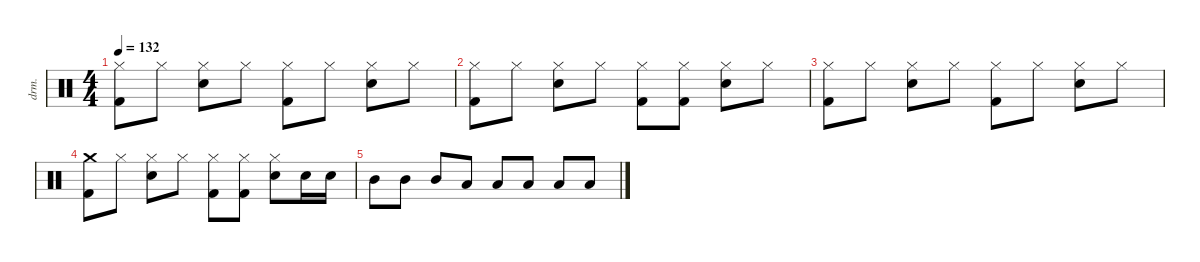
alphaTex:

\defaultSystemsLayout 4
\hideDynamics
\bracketExtendMode nobrackets
\track ("敲击乐器" "drm.") {instrument percussion}
\staff {score}
\articulation defaults
\ts (4 4)
\tempo 132
\clef neutral
\ks c
("Hi-Hat (closed)" "Kick (hit) 2").8{dy f} "Hi-Hat (closed)".8 ("Hi-Hat (closed)" "Snare (hit) 2").8 "Hi-Hat (closed)".8 ("Hi-Hat (closed)" "Kick (hit) 2").8 "Hi-Hat (closed)".8 ("Hi-Hat (closed)" "Snare (hit) 2").8 "Hi-Hat (closed)".8 |
("Hi-Hat (closed)" "Kick (hit) 2").8 "Hi-Hat (closed)".8 ("Hi-Hat (closed)" "Snare (hit) 2").8 "Hi-Hat (closed)".8 ("Hi-Hat (closed)" "Kick (hit) 2").8 ("Hi-Hat (closed)" "Kick (hit) 2").8 ("Hi-Hat (closed)" "Snare (hit) 2").8 "Hi-Hat (closed)".8 |
("Hi-Hat (closed)" "Kick (hit) 2").8 "Hi-Hat (closed)".8 ("Hi-Hat (closed)" "Snare (hit) 2").8 "Hi-Hat (closed)".8 ("Hi-Hat (closed)" "Kick (hit) 2").8 "Hi-Hat (closed)".8 ("Hi-Hat (closed)" "Snare (hit) 2").8 "Hi-Hat (closed)".8 |
("Crash medium (hit)" "Kick (hit) 2").8 "Hi-Hat (closed)".8 ("Hi-Hat (closed)" "Snare (hit) 2").8 "Hi-Hat (closed)".8 ("Hi-Hat (closed)" "Kick (hit) 2").8 ("Hi-Hat (closed)" "Kick (hit) 2").8 ("Hi-Hat (closed)" "Snare (hit) 2").8 "Snare (hit) 2".16 "Snare (hit) 2".16 |
"Mid Tom (hit)".8 "Mid Tom (hit)".8 "Mid Tom (hit)".8 "Low Tom (hit)".8 "Low Tom (hit)".8 "Low Tom (hit)".8 "Low Floor Tom (hit)".8 "Low Floor Tom (hit)".8
